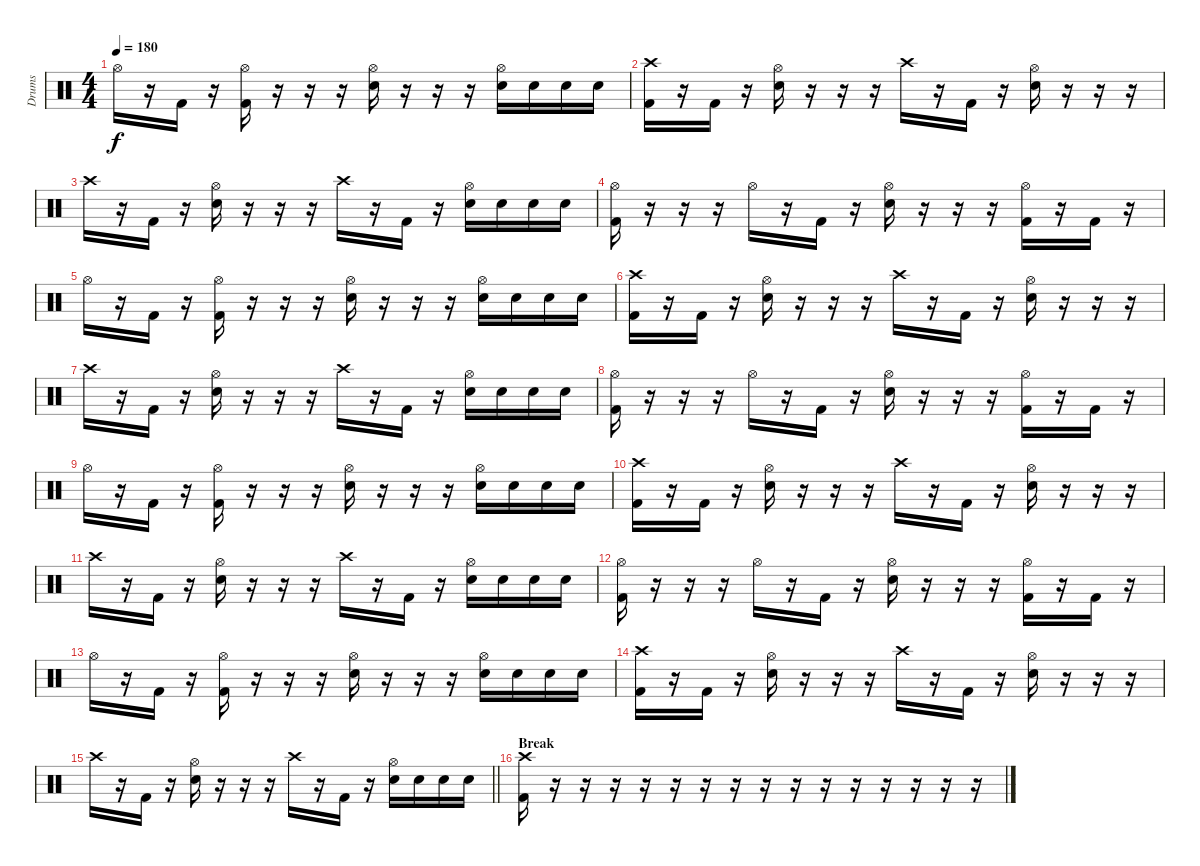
\track ("Drums" "Drums") {instrument percussion}
\staff {score}
\articulation defaults
\ts (4 4)
\tempo 180
\clef neutral
\ks c "Hi-Hat (open)".16{dy f}
r.16 "Kick (hit) 2".16 r.16 ("Hi-Hat (open)" "Kick (hit) 2").16 r.16 r.16 r.16 ("Hi-Hat (open)" "Electric Snare (hit)").16 r.16 r.16 r.16 ("Hi-Hat (open)" "Electric Snare (hit)").16 "Electric Snare (hit)".16 "Electric Snare (hit)".16 "Electric Snare (hit)".16 |
("Crash high (hit)" "Kick (hit) 2").16 r.16 "Kick (hit) 2".16 r.16 ("Hi-Hat (open)" "Electric Snare (hit)").16 r.16 r.16 r.16 "Crash high (hit)".16 r.16 "Kick (hit) 2".16 r.16 ("Hi-Hat (open)" "Electric Snare (hit)").16 r.16 r.16 r.16 |
"Crash high (hit)".16 r.16 "Kick (hit) 2".16 r.16 ("Hi-Hat (open)" "Electric Snare (hit)").16 r.16 r.16 r.16 "Crash high (hit)".16 r.16 "Kick (hit) 2".16 r.16 ("Hi-Hat (open)" "Electric Snare (hit)").16 "Electric Snare (hit)".16 "Electric Snare (hit)".16 "Electric Snare (hit)".16 |
("Hi-Hat (open)" "Kick (hit) 2").16 r.16 r.16 r.16 "Hi-Hat (open)".16 r.16 "Kick (hit) 2".16 r.16 ("Hi-Hat (open)" "Electric Snare (hit)").16 r.16 r.16 r.16 ("Hi-Hat (open)" "Kick (hit) 2").16 r.16 "Kick (hit) 2".16 r.16 |
"Hi-Hat (open)".16 r.16 "Kick (hit) 2".16 r.16 ("Hi-Hat (open)" "Kick (hit) 2").16 r.16 r.16 r.16 ("Hi-Hat (open)" "Electric Snare (hit)").16 r.16 r.16 r.16 ("Hi-Hat (open)" "Electric Snare (hit)").16 "Electric Snare (hit)".16 "Electric Snare (hit)".16 "Electric Snare (hit)".16 |
("Crash high (hit)" "Kick (hit) 2").16 r.16 "Kick (hit) 2".16 r.16 ("Hi-Hat (open)" "Electric Snare (hit)").16 r.16 r.16 r.16 "Crash high (hit)".16 r.16 "Kick (hit) 2".16 r.16 ("Hi-Hat (open)" "Electric Snare (hit)").16 r.16 r.16 r.16 |
"Crash high (hit)".16 r.16 "Kick (hit) 2".16 r.16 ("Hi-Hat (open)" "Electric Snare (hit)").16 r.16 r.16 r.16 "Crash high (hit)".16 r.16 "Kick (hit) 2".16 r.16 ("Hi-Hat (open)" "Electric Snare (hit)").16 "Electric Snare (hit)".16 "Electric Snare (hit)".16 "Electric Snare (hit)".16 |
("Hi-Hat (open)" "Kick (hit) 2").16 r.16 r.16 r.16 "Hi-Hat (open)".16 r.16 "Kick (hit) 2".16 r.16 ("Hi-Hat (open)" "Electric Snare (hit)").16 r.16 r.16 r.16 ("Hi-Hat (open)" "Kick (hit) 2").16 r.16 "Kick (hit) 2".16 r.16 |
"Hi-Hat (open)".16 r.16 "Kick (hit) 2".16 r.16 ("Hi-Hat (open)" "Kick (hit) 2").16 r.16 r.16 r.16 ("Hi-Hat (open)" "Electric Snare (hit)").16 r.16 r.16 r.16 ("Hi-Hat (open)" "Electric Snare (hit)").16 "Electric Snare (hit)".16 "Electric Snare (hit)".16 "Electric Snare (hit)".16 |
("Crash high (hit)" "Kick (hit) 2").16 r.16 "Kick (hit) 2".16 r.16 ("Hi-Hat (open)" "Electric Snare (hit)").16 r.16 r.16 r.16 "Crash high (hit)".16 r.16 "Kick (hit) 2".16 r.16 ("Hi-Hat (open)" "Electric Snare (hit)").16 r.16 r.16 r.16 |
"Crash high (hit)".16 r.16 "Kick (hit) 2".16 r.16 ("Hi-Hat (open)" "Electric Snare (hit)").16 r.16 r.16 r.16 "Crash high (hit)".16 r.16 "Kick (hit) 2".16 r.16 ("Hi-Hat (open)" "Electric Snare (hit)").16 "Electric Snare (hit)".16 "Electric Snare (hit)".16 "Electric Snare (hit)".16 |
("Hi-Hat (open)" "Kick (hit) 2").16 r.16 r.16 r.16 "Hi-Hat (open)".16 r.16 "Kick (hit) 2".16 r.16 ("Hi-Hat (open)" "Electric Snare (hit)").16 r.16 r.16 r.16 ("Hi-Hat (open)" "Kick (hit) 2").16 r.16 "Kick (hit) 2".16 r.16 |
"Hi-Hat (open)".16 r.16 "Kick (hit) 2".16 r.16 ("Hi-Hat (open)" "Kick (hit) 2").16 r.16 r.16 r.16 ("Hi-Hat (open)" "Electric Snare (hit)").16 r.16 r.16 r.16 ("Hi-Hat (open)" "Electric Snare (hit)").16 "Electric Snare (hit)".16 "Electric Snare (hit)".16 "Electric Snare (hit)".16 |
("Crash high (hit)" "Kick (hit) 2").16 r.16 "Kick (hit) 2".16 r.16 ("Hi-Hat (open)" "Electric Snare (hit)").16 r.16 r.16 r.16 "Crash high (hit)".16 r.16 "Kick (hit) 2".16 r.16 ("Hi-Hat (open)" "Electric Snare (hit)").16 r.16 r.16 r.16 |
\barLineRight lightlight "Crash high (hit)".16
r.16 "Kick (hit) 2".16 r.16 ("Hi-Hat (open)" "Electric Snare (hit)").16 r.16 r.16 r.16 "Crash high (hit)".16 r.16 "Kick (hit) 2".16 r.16 ("Hi-Hat (open)" "Electric Snare (hit)").16 "Electric Snare (hit)".16 "Electric Snare (hit)".16 "Electric Snare (hit)".16 |
\section ("" "Break")
("Crash high (hit)" "Kick (hit) 2").16 r.16 r.16 r.16 r.16 r.16 r.16 r.16 r.16 r.16 r.16 r.16 r.16 r.16 r.16 r.16
